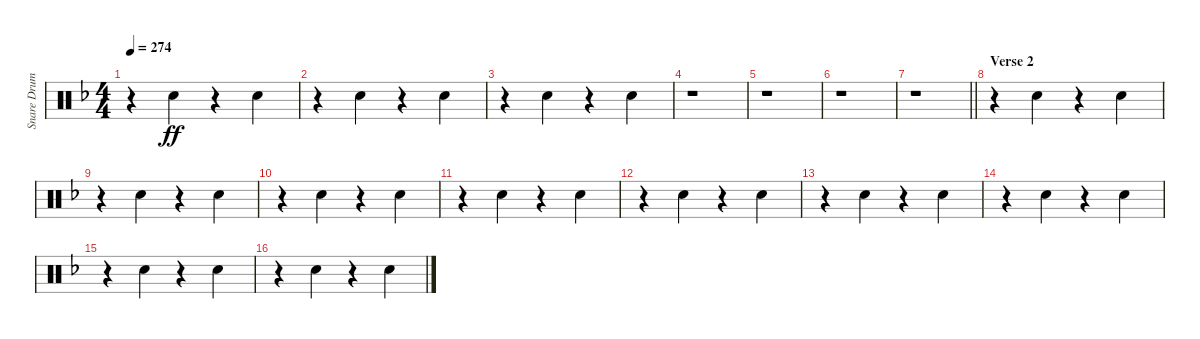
\track ("Snare Drum" "Snare Drum") {instrument percussion}
\staff {score}
\articulation defaults
\ts (4 4)
\tempo 274
\clef neutral
\ks dminor
r.4{dy ff} "Electric Snare (hit)".4 r.4 "Electric Snare (hit)".4 |
r.4 "Electric Snare (hit)".4 r.4 "Electric Snare (hit)".4 |
r.4 "Electric Snare (hit)".4 r.4 "Electric Snare (hit)".4 |
r.1 |
r.1 |
r.1 |
\barLineRight lightlight
r.1 |
\section ("" "Verse 2")
r.4 "Electric Snare (hit)".4 r.4 "Electric Snare (hit)".4 |
r.4 "Electric Snare (hit)".4 r.4 "Electric Snare (hit)".4 |
r.4 "Electric Snare (hit)".4 r.4 "Electric Snare (hit)".4 |
r.4 "Electric Snare (hit)".4 r.4 "Electric Snare (hit)".4 |
r.4 "Electric Snare (hit)".4 r.4 "Electric Snare (hit)".4 |
r.4 "Electric Snare (hit)".4 r.4 "Electric Snare (hit)".4 |
r.4 "Electric Snare (hit)".4 r.4 "Electric Snare (hit)".4 |
r.4 "Electric Snare (hit)".4 r.4 "Electric Snare (hit)".4 |
r.4 "Electric Snare (hit)".4 r.4 "Electric Snare (hit)".4
